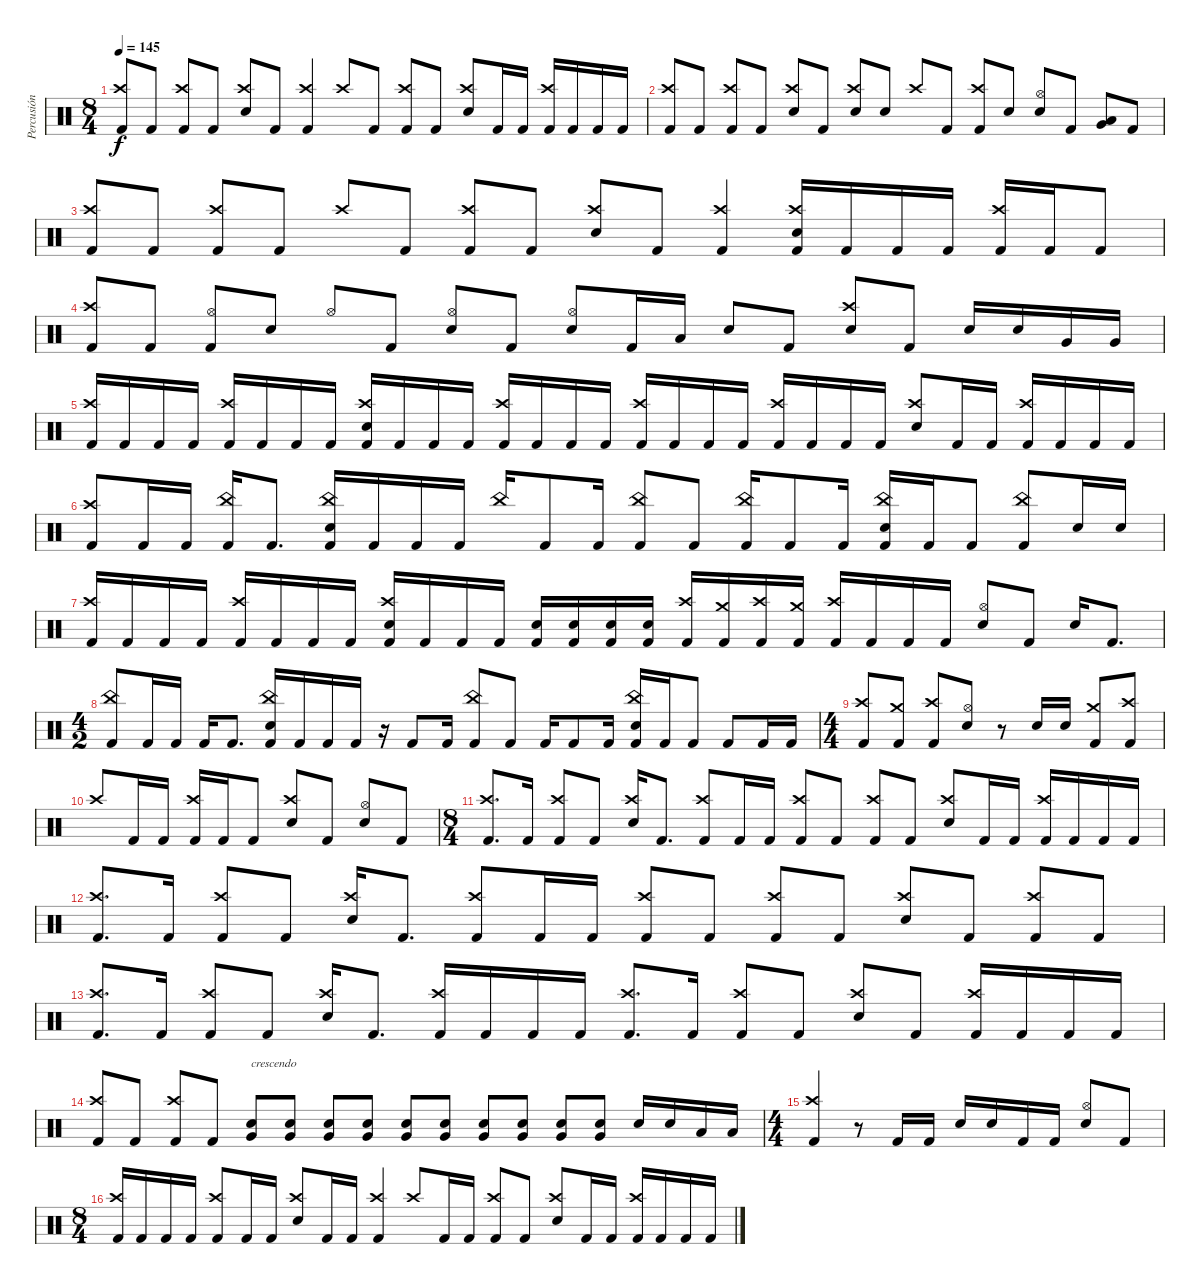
\track ("Percusión" "Percusión") {instrument percussion}
\staff {score}
\articulation defaults
\ts (8 4)
\tempo 145
\clef neutral
\ks c
("Crash high (hit)" "Kick (hit) 2").8{dy f beam Up} "Kick (hit) 2".8{beam Up} ("Crash high (hit)" "Kick (hit) 2").8{beam Up} "Kick (hit) 2".8{beam Up} ("Crash high (hit)" "Electric Snare (hit)").8{beam Up} "Kick (hit) 2".8{beam Up} ("Crash high (hit)" "Kick (hit) 2").4{beam Up} "Crash high (hit)".8{beam Up} "Kick (hit) 2".8{beam Up} ("Crash high (hit)" "Kick (hit) 2").8{beam Up} "Kick (hit) 2".8{beam Up} ("Crash high (hit)" "Electric Snare (hit)").8{beam Up} "Kick (hit) 2".16{beam Up} "Kick (hit) 2".16{beam Up} ("Crash high (hit)" "Kick (hit) 2").16{beam Up} "Kick (hit) 2".16{beam Up} "Kick (hit) 2".16{beam Up} "Kick (hit) 2".16{beam Up} |
("Crash high (hit)" "Kick (hit) 2").8{beam Up} "Kick (hit) 2".8{beam Up} ("Crash high (hit)" "Kick (hit) 2").8{beam Up} "Kick (hit) 2".8{beam Up} ("Crash high (hit)" "Electric Snare (hit)").8{beam Up} "Kick (hit) 2".8{beam Up} ("Crash high (hit)" "Electric Snare (hit)").8{beam Up} "Electric Snare (hit)".8{beam Up} "Crash high (hit)".8{beam Up} "Kick (hit) 2".8{beam Up} ("Crash high (hit)" "Kick (hit) 2").8{beam Up} "Electric Snare (hit)".8{beam Up} ("Hi-Hat (open)" "Electric Snare (hit)").8{beam Up} "Kick (hit) 2".8{beam Up} ("Low Tom (hit)" "Very Low Tom (hit)").8{beam Up} "Kick (hit) 2".8{beam Up} |
("Crash high (hit)" "Kick (hit) 2").8{beam Up} "Kick (hit) 2".8{beam Up} ("Crash high (hit)" "Kick (hit) 2").8{beam Up} "Kick (hit) 2".8{beam Up} "Crash high (hit)".8{beam Up} "Kick (hit) 2".8{beam Up} ("Crash high (hit)" "Kick (hit) 2").8{beam Up} "Kick (hit) 2".8{beam Up} ("Crash high (hit)" "Electric Snare (hit)").8{beam Up} "Kick (hit) 2".8{beam Up} ("Crash high (hit)" "Kick (hit) 2").4{beam Up} ("Crash high (hit)" "Electric Snare (hit)" "Kick (hit) 2").16{beam Up} "Kick (hit) 2".16{beam Up} "Kick (hit) 2".16{beam Up} "Kick (hit) 2".16{beam Up} ("Crash high (hit)" "Kick (hit) 2").16{beam Up} "Kick (hit) 2".16{beam Up} "Kick (hit) 2".8{beam Up} |
("Crash high (hit)" "Kick (hit) 2").8{beam Up} "Kick (hit) 2".8{beam Up} ("Hi-Hat (open)" "Kick (hit) 2").8{beam Up} "Electric Snare (hit)".8{beam Up} "Hi-Hat (open)".8{beam Up} "Kick (hit) 2".8{beam Up} ("Hi-Hat (open)" "Electric Snare (hit)").8{beam Up} "Kick (hit) 2".8{beam Up} ("Hi-Hat (open)" "Electric Snare (hit)").8{beam Up} "Kick (hit) 2".16{beam Up} "Low Tom (hit)".16{beam Up} "Electric Snare (hit)".8 "Kick (hit) 2".8 ("Crash high (hit)" "Electric Snare (hit)").8{beam Up} "Kick (hit) 2".8{beam Up} "Electric Snare (hit)".16 "Electric Snare (hit)".16 "Very Low Tom (hit)".16 "Very Low Tom (hit)".16 |
("Crash high (hit)" "Kick (hit) 2").16{beam Up} "Kick (hit) 2".16{beam Up} "Kick (hit) 2".16{beam Up} "Kick (hit) 2".16{beam Up} ("Crash high (hit)" "Kick (hit) 2").16{beam Up} "Kick (hit) 2".16{beam Up} "Kick (hit) 2".16{beam Up} "Kick (hit) 2".16{beam Up} ("Crash high (hit)" "Electric Snare (hit)" "Kick (hit) 2").16{beam Up} "Kick (hit) 2".16{beam Up} "Kick (hit) 2".16{beam Up} "Kick (hit) 2".16{beam Up} ("Crash high (hit)" "Kick (hit) 2").16{beam Up} "Kick (hit) 2".16{beam Up} "Kick (hit) 2".16{beam Up} "Kick (hit) 2".16{beam Up} ("Crash high (hit)" "Kick (hit) 2").16{beam Up} "Kick (hit) 2".16{beam Up} "Kick (hit) 2".16{beam Up} "Kick (hit) 2".16{beam Up} ("Crash high (hit)" "Kick (hit) 2").16{beam Up} "Kick (hit) 2".16{beam Up} "Kick (hit) 2".16{beam Up} "Kick (hit) 2".16{beam Up} ("Crash high (hit)" "Electric Snare (hit)").8{beam Up} "Kick (hit) 2".16{beam Up} "Kick (hit) 2".16{beam Up} ("Crash high (hit)" "Kick (hit) 2").16{beam Up} "Kick (hit) 2".16{beam Up} "Kick (hit) 2".16{beam Up} "Kick (hit) 2".16{beam Up} |
("Crash high (hit)" "Kick (hit) 2").8{beam Up} "Kick (hit) 2".16{beam Up} "Kick (hit) 2".16{beam Up} ("China (hit)" "Kick (hit) 2").16{beam Up} "Kick (hit) 2".8{d beam Up} ("China (hit)" "Electric Snare (hit)" "Kick (hit) 2").16{beam Up} "Kick (hit) 2".16{beam Up} "Kick (hit) 2".16{beam Up} "Kick (hit) 2".16{beam Up} "China (hit)".16{beam Up} "Kick (hit) 2".8{beam Up} "Kick (hit) 2".16{beam Up} ("China (hit)" "Kick (hit) 2").8{beam Up} "Kick (hit) 2".8{beam Up} ("China (hit)" "Kick (hit) 2").16{beam Up} "Kick (hit) 2".8{beam Up} "Kick (hit) 2".16{beam Up} ("China (hit)" "Electric Snare (hit)" "Kick (hit) 2").16{beam Up} "Kick (hit) 2".16{beam Up} "Kick (hit) 2".8{beam Up} ("China (hit)" "Kick (hit) 2").8{beam Up} "Electric Snare (hit)".16{beam Up} "Electric Snare (hit)".16{beam Up} |
("Crash high (hit)" "Kick (hit) 2").16{beam Up} "Kick (hit) 2".16{beam Up} "Kick (hit) 2".16{beam Up} "Kick (hit) 2".16{beam Up} ("Crash high (hit)" "Kick (hit) 2").16{beam Up} "Kick (hit) 2".16{beam Up} "Kick (hit) 2".16{beam Up} "Kick (hit) 2".16{beam Up} ("Crash high (hit)" "Electric Snare (hit)" "Kick (hit) 2").16{beam Up} "Kick (hit) 2".16{beam Up} "Kick (hit) 2".16{beam Up} "Kick (hit) 2".16{beam Up} ("Electric Snare (hit)" "Kick (hit) 2").16{beam Up} ("Electric Snare (hit)" "Kick (hit) 2").16{beam Up} ("Electric Snare (hit)" "Kick (hit) 2").16{beam Up} ("Electric Snare (hit)" "Kick (hit) 2").16{beam Up} ("Crash high (hit)" "Kick (hit) 2").16{beam Up} ("Crash medium (hit)" "Kick (hit) 2").16{beam Up} ("Crash high (hit)" "Kick (hit) 2").16{beam Up} ("Crash medium (hit)" "Kick (hit) 2").16{beam Up} ("Crash high (hit)" "Kick (hit) 2").16{beam Up} "Kick (hit) 2".16{beam Up} "Kick (hit) 2".16{beam Up} "Kick (hit) 2".16{beam Up} ("Hi-Hat (open)" "Electric Snare (hit)").8{beam Up} "Kick (hit) 2".8{beam Up} "Electric Snare (hit)".16 "Kick (hit) 2".8{d} |
\ts (4 2)
("China (hit)" "Kick (hit) 2").8{beam Up} "Kick (hit) 2".16{beam Up} "Kick (hit) 2".16{beam Up} "Kick (hit) 2".16 "Kick (hit) 2".8{d} ("China (hit)" "Electric Snare (hit)" "Kick (hit) 2").16{beam Up} "Kick (hit) 2".16{beam Up} "Kick (hit) 2".16{beam Up} "Kick (hit) 2".16{beam Up} r.16 "Kick (hit) 2".8 "Kick (hit) 2".16 ("China (hit)" "Kick (hit) 2").8{beam Up} "Kick (hit) 2".8{beam Up} "Kick (hit) 2".16 "Kick (hit) 2".8 "Kick (hit) 2".16 ("China (hit)" "Electric Snare (hit)" "Kick (hit) 2").16{beam Up} "Kick (hit) 2".16{beam Up} "Kick (hit) 2".8{beam Up} "Kick (hit) 2".8 "Kick (hit) 2".16 "Kick (hit) 2".16 |
\ts (4 4)
("Crash high (hit)" "Kick (hit) 2").8{beam Up} ("Crash medium (hit)" "Kick (hit) 2").8{beam Up} ("Crash high (hit)" "Kick (hit) 2").8{beam Up} ("Hi-Hat (open)" "Electric Snare (hit)").8{beam Up} r.8 "Electric Snare (hit)".16{beam Up} "Electric Snare (hit)".16{beam Up} ("Crash medium (hit)" "Kick (hit) 2").8{beam Up} ("Crash high (hit)" "Kick (hit) 2").8{beam Up} |
"Crash high (hit)".8{beam Up} "Kick (hit) 2".16{beam Up} "Kick (hit) 2".16{beam Up} ("Crash high (hit)" "Kick (hit) 2").16{beam Up} "Kick (hit) 2".16{beam Up} "Kick (hit) 2".8{beam Up} ("Crash high (hit)" "Electric Snare (hit)").8{beam Up} "Kick (hit) 2".8{beam Up} ("Hi-Hat (open)" "Electric Snare (hit)").8{beam Up} "Kick (hit) 2".8{beam Up} |
\ts (8 4)
("Crash high (hit)" "Kick (hit) 2").8{d beam Up} "Kick (hit) 2".16{beam Up} ("Crash high (hit)" "Kick (hit) 2").8{beam Up} "Kick (hit) 2".8{beam Up} ("Crash high (hit)" "Electric Snare (hit)").16{beam Up} "Kick (hit) 2".8{d beam Up} ("Crash high (hit)" "Kick (hit) 2").8{beam Up} "Kick (hit) 2".16{beam Up} "Kick (hit) 2".16{beam Up} ("Crash high (hit)" "Kick (hit) 2").8{beam Up} "Kick (hit) 2".8{beam Up} ("Crash high (hit)" "Kick (hit) 2").8{beam Up} "Kick (hit) 2".8{beam Up} ("Crash high (hit)" "Electric Snare (hit)").8{beam Up} "Kick (hit) 2".16{beam Up} "Kick (hit) 2".16{beam Up} ("Crash high (hit)" "Kick (hit) 2").16{beam Up} "Kick (hit) 2".16{beam Up} "Kick (hit) 2".16{beam Up} "Kick (hit) 2".16{beam Up} |
("Crash high (hit)" "Kick (hit) 2").8{d beam Up} "Kick (hit) 2".16{beam Up} ("Crash high (hit)" "Kick (hit) 2").8{beam Up} "Kick (hit) 2".8{beam Up} ("Crash high (hit)" "Electric Snare (hit)").16{beam Up} "Kick (hit) 2".8{d beam Up} ("Crash high (hit)" "Kick (hit) 2").8{beam Up} "Kick (hit) 2".16{beam Up} "Kick (hit) 2".16{beam Up} ("Crash high (hit)" "Kick (hit) 2").8{beam Up} "Kick (hit) 2".8{beam Up} ("Crash high (hit)" "Kick (hit) 2").8{beam Up} "Kick (hit) 2".8{beam Up} ("Crash high (hit)" "Electric Snare (hit)").8{beam Up} "Kick (hit) 2".8{beam Up} ("Crash high (hit)" "Kick (hit) 2").8{beam Up} "Kick (hit) 2".8{beam Up} |
("Crash high (hit)" "Kick (hit) 2").8{d beam Up} "Kick (hit) 2".16{beam Up} ("Crash high (hit)" "Kick (hit) 2").8{beam Up} "Kick (hit) 2".8{beam Up} ("Crash high (hit)" "Electric Snare (hit)").16{beam Up} "Kick (hit) 2".8{d beam Up} ("Crash high (hit)" "Kick (hit) 2").16{beam Up} "Kick (hit) 2".16{beam Up} "Kick (hit) 2".16{beam Up} "Kick (hit) 2".16{beam Up} ("Crash high (hit)" "Kick (hit) 2").8{d beam Up} "Kick (hit) 2".16{beam Up} ("Crash high (hit)" "Kick (hit) 2").8{beam Up} "Kick (hit) 2".8{beam Up} ("Crash high (hit)" "Electric Snare (hit)").8{beam Up} "Kick (hit) 2".8{beam Up} ("Crash high (hit)" "Kick (hit) 2").16{beam Up} "Kick (hit) 2".16{beam Up} "Kick (hit) 2".16{beam Up} "Kick (hit) 2".16{beam Up} |
("Crash high (hit)" "Kick (hit) 2").8{beam Up} "Kick (hit) 2".8{beam Up} ("Crash high (hit)" "Kick (hit) 2").8{beam Up} "Kick (hit) 2".8{beam Up} ("Very Low Tom (hit)" "Electric Snare (hit)").8{txt "crescendo"} ("Very Low Tom (hit)" "Electric Snare (hit)").8 ("Very Low Tom (hit)" "Electric Snare (hit)").8 ("Very Low Tom (hit)" "Electric Snare (hit)").8 ("Very Low Tom (hit)" "Electric Snare (hit)").8 ("Very Low Tom (hit)" "Electric Snare (hit)").8 ("Very Low Tom (hit)" "Electric Snare (hit)").8 ("Very Low Tom (hit)" "Electric Snare (hit)").8 ("Very Low Tom (hit)" "Electric Snare (hit)").8 ("Very Low Tom (hit)" "Electric Snare (hit)").8 "Electric Snare (hit)".16{beam Up} "Electric Snare (hit)".16{beam Up} "Low Tom (hit)".16{beam Up} "Low Tom (hit)".16{beam Up} |
\ts (4 4)
("Crash high (hit)" "Kick (hit) 2").4{beam Up} r.8 "Kick (hit) 2".16 "Kick (hit) 2".16 "Electric Snare (hit)".16 "Electric Snare (hit)".16 "Kick (hit) 2".16 "Kick (hit) 2".16 ("Hi-Hat (open)" "Electric Snare (hit)").8{beam Up} "Kick (hit) 2".8{beam Up} |
\ts (8 4)
("Crash high (hit)" "Kick (hit) 2").16{beam Up} "Kick (hit) 2".16{beam Up} "Kick (hit) 2".16{beam Up} "Kick (hit) 2".16{beam Up} ("Crash high (hit)" "Kick (hit) 2").8{beam Up} "Kick (hit) 2".16{beam Up} "Kick (hit) 2".16{beam Up} ("Crash high (hit)" "Electric Snare (hit)").8{beam Up} "Kick (hit) 2".16{beam Up} "Kick (hit) 2".16{beam Up} ("Crash high (hit)" "Kick (hit) 2").4{beam Up} "Crash high (hit)".8{beam Up} "Kick (hit) 2".16{beam Up} "Kick (hit) 2".16{beam Up} ("Crash high (hit)" "Kick (hit) 2").8{beam Up} "Kick (hit) 2".8{beam Up} ("Crash high (hit)" "Electric Snare (hit)").8{beam Up} "Kick (hit) 2".16{beam Up} "Kick (hit) 2".16{beam Up} ("Crash high (hit)" "Kick (hit) 2").16{beam Up} "Kick (hit) 2".16{beam Up} "Kick (hit) 2".16{beam Up} "Kick (hit) 2".16{beam Up}
